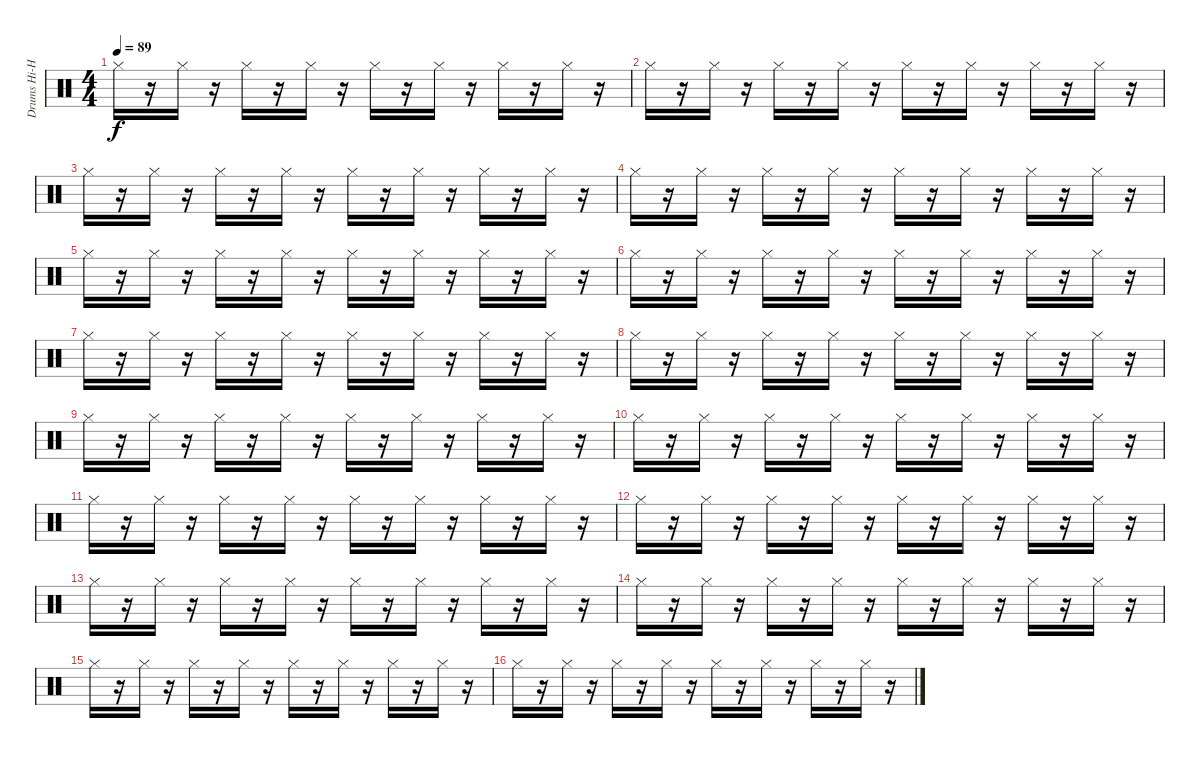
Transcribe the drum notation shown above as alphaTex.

\track ("Drums Hi-Hat closed" "Drums Hi-H") {instrument percussion}
\staff {score}
\articulation defaults
\ts (4 4)
\tempo 89
\clef neutral
\ks c "Hi-Hat (closed)".16{dy f}
r.16 "Hi-Hat (closed)".16 r.16 "Hi-Hat (closed)".16 r.16 "Hi-Hat (closed)".16 r.16 "Hi-Hat (closed)".16 r.16 "Hi-Hat (closed)".16 r.16 "Hi-Hat (closed)".16 r.16 "Hi-Hat (closed)".16 r.16 |
"Hi-Hat (closed)".16 r.16 "Hi-Hat (closed)".16 r.16 "Hi-Hat (closed)".16 r.16 "Hi-Hat (closed)".16 r.16 "Hi-Hat (closed)".16 r.16 "Hi-Hat (closed)".16 r.16 "Hi-Hat (closed)".16 r.16 "Hi-Hat (closed)".16 r.16 |
"Hi-Hat (closed)".16 r.16 "Hi-Hat (closed)".16 r.16 "Hi-Hat (closed)".16 r.16 "Hi-Hat (closed)".16 r.16 "Hi-Hat (closed)".16 r.16 "Hi-Hat (closed)".16 r.16 "Hi-Hat (closed)".16 r.16 "Hi-Hat (closed)".16 r.16 |
"Hi-Hat (closed)".16 r.16 "Hi-Hat (closed)".16 r.16 "Hi-Hat (closed)".16 r.16 "Hi-Hat (closed)".16 r.16 "Hi-Hat (closed)".16 r.16 "Hi-Hat (closed)".16 r.16 "Hi-Hat (closed)".16 r.16 "Hi-Hat (closed)".16 r.16 |
"Hi-Hat (closed)".16 r.16 "Hi-Hat (closed)".16 r.16 "Hi-Hat (closed)".16 r.16 "Hi-Hat (closed)".16 r.16 "Hi-Hat (closed)".16 r.16 "Hi-Hat (closed)".16 r.16 "Hi-Hat (closed)".16 r.16 "Hi-Hat (closed)".16 r.16 |
"Hi-Hat (closed)".16 r.16 "Hi-Hat (closed)".16 r.16 "Hi-Hat (closed)".16 r.16 "Hi-Hat (closed)".16 r.16 "Hi-Hat (closed)".16 r.16 "Hi-Hat (closed)".16 r.16 "Hi-Hat (closed)".16 r.16 "Hi-Hat (closed)".16 r.16 |
"Hi-Hat (closed)".16 r.16 "Hi-Hat (closed)".16 r.16 "Hi-Hat (closed)".16 r.16 "Hi-Hat (closed)".16 r.16 "Hi-Hat (closed)".16 r.16 "Hi-Hat (closed)".16 r.16 "Hi-Hat (closed)".16 r.16 "Hi-Hat (closed)".16 r.16 |
"Hi-Hat (closed)".16 r.16 "Hi-Hat (closed)".16 r.16 "Hi-Hat (closed)".16 r.16 "Hi-Hat (closed)".16 r.16 "Hi-Hat (closed)".16 r.16 "Hi-Hat (closed)".16 r.16 "Hi-Hat (closed)".16 r.16 "Hi-Hat (closed)".16 r.16 |
"Hi-Hat (closed)".16 r.16 "Hi-Hat (closed)".16 r.16 "Hi-Hat (closed)".16 r.16 "Hi-Hat (closed)".16 r.16 "Hi-Hat (closed)".16 r.16 "Hi-Hat (closed)".16 r.16 "Hi-Hat (closed)".16 r.16 "Hi-Hat (closed)".16 r.16 |
"Hi-Hat (closed)".16 r.16 "Hi-Hat (closed)".16 r.16 "Hi-Hat (closed)".16 r.16 "Hi-Hat (closed)".16 r.16 "Hi-Hat (closed)".16 r.16 "Hi-Hat (closed)".16 r.16 "Hi-Hat (closed)".16 r.16 "Hi-Hat (closed)".16 r.16 |
"Hi-Hat (closed)".16 r.16 "Hi-Hat (closed)".16 r.16 "Hi-Hat (closed)".16 r.16 "Hi-Hat (closed)".16 r.16 "Hi-Hat (closed)".16 r.16 "Hi-Hat (closed)".16 r.16 "Hi-Hat (closed)".16 r.16 "Hi-Hat (closed)".16 r.16 |
"Hi-Hat (closed)".16 r.16 "Hi-Hat (closed)".16 r.16 "Hi-Hat (closed)".16 r.16 "Hi-Hat (closed)".16 r.16 "Hi-Hat (closed)".16 r.16 "Hi-Hat (closed)".16 r.16 "Hi-Hat (closed)".16 r.16 "Hi-Hat (closed)".16 r.16 |
"Hi-Hat (closed)".16 r.16 "Hi-Hat (closed)".16 r.16 "Hi-Hat (closed)".16 r.16 "Hi-Hat (closed)".16 r.16 "Hi-Hat (closed)".16 r.16 "Hi-Hat (closed)".16 r.16 "Hi-Hat (closed)".16 r.16 "Hi-Hat (closed)".16 r.16 |
"Hi-Hat (closed)".16 r.16 "Hi-Hat (closed)".16 r.16 "Hi-Hat (closed)".16 r.16 "Hi-Hat (closed)".16 r.16 "Hi-Hat (closed)".16 r.16 "Hi-Hat (closed)".16 r.16 "Hi-Hat (closed)".16 r.16 "Hi-Hat (closed)".16 r.16 |
"Hi-Hat (closed)".16 r.16 "Hi-Hat (closed)".16 r.16 "Hi-Hat (closed)".16 r.16 "Hi-Hat (closed)".16 r.16 "Hi-Hat (closed)".16 r.16 "Hi-Hat (closed)".16 r.16 "Hi-Hat (closed)".16 r.16 "Hi-Hat (closed)".16 r.16 |
"Hi-Hat (closed)".16 r.16 "Hi-Hat (closed)".16 r.16 "Hi-Hat (closed)".16 r.16 "Hi-Hat (closed)".16 r.16 "Hi-Hat (closed)".16 r.16 "Hi-Hat (closed)".16 r.16 "Hi-Hat (closed)".16 r.16 "Hi-Hat (closed)".16 r.16
